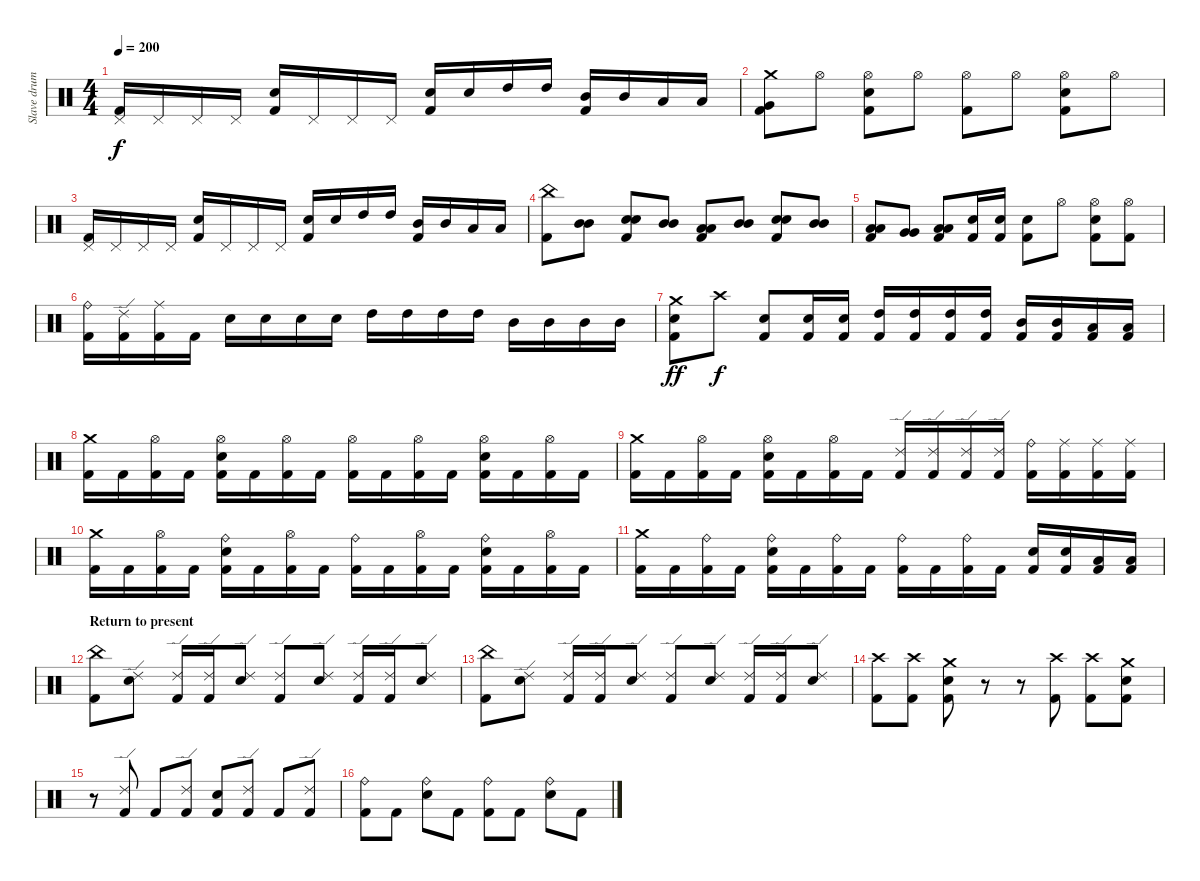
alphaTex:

\track ("Slave drum" "Slave drum") {instrument percussion}
\staff {score}
\articulation defaults
\ts (4 4)
\tempo 200
\clef neutral
\ks c
("Pedal Hi-Hat (hit)" "Kick (hit) 2").16{dy f} "Pedal Hi-Hat (hit)".16 "Pedal Hi-Hat (hit)".16 "Pedal Hi-Hat (hit)".16 ("Electric Snare (hit)" "Kick (hit) 2").16 "Pedal Hi-Hat (hit)".16 "Pedal Hi-Hat (hit)".16 "Pedal Hi-Hat (hit)".16 ("Electric Snare (hit)" "Kick (hit) 2").16 "Electric Snare (hit)".16 "High Tom (hit)".16 "High Tom (hit)".16 ("Mid Tom (hit)" "Kick (hit) 2").16 "Mid Tom (hit)".16 "Low Tom (hit)".16 "Low Tom (hit)".16 |
("Crash medium (hit)" "Very Low Tom (hit)" "Kick (hit) 2").8 "Hi-Hat (open)".8 ("Hi-Hat (open)" "Electric Snare (hit)" "Kick (hit) 2").8 "Hi-Hat (open)".8 ("Hi-Hat (open)" "Kick (hit) 2").8 "Hi-Hat (open)".8 ("Hi-Hat (open)" "Electric Snare (hit)" "Kick (hit) 2").8 "Hi-Hat (open)".8 |
("Pedal Hi-Hat (hit)" "Kick (hit) 2").16 "Pedal Hi-Hat (hit)".16 "Pedal Hi-Hat (hit)".16 "Pedal Hi-Hat (hit)".16 ("Electric Snare (hit)" "Kick (hit) 2").16 "Pedal Hi-Hat (hit)".16 "Pedal Hi-Hat (hit)".16 "Pedal Hi-Hat (hit)".16 ("Electric Snare (hit)" "Kick (hit) 2").16 "Electric Snare (hit)".16 "High Tom (hit)".16 "High Tom (hit)".16 ("Mid Tom (hit)" "Kick (hit) 2").16 "Mid Tom (hit)".16 "Low Tom (hit)".16 "Low Tom (hit)".16 |
("China (hit)" "Kick (hit) 2").8 ("Mid Tom (hit)" "Mid Tom (hit)").8 ("Electric Snare (hit)" "Electric Snare (hit)" "Kick (hit) 2").8 ("Mid Tom (hit)" "Mid Tom (hit)").8 ("Low Tom (hit)" "Low Tom (hit)" "Kick (hit) 2").8 ("Mid Tom (hit)" "Mid Tom (hit)").8 ("Electric Snare (hit)" "Electric Snare (hit)" "Kick (hit) 2").8 ("Mid Tom (hit)" "Mid Tom (hit)").8 |
("Low Tom (hit)" "Low Tom (hit)" "Kick (hit) 2").8 ("Very Low Tom (hit)" "Very Low Tom (hit)").8 ("Low Floor Tom (hit)" "Low Floor Tom (hit)" "Kick (hit) 2").8 ("Electric Snare (hit)" "Kick (hit) 2").16 ("Electric Snare (hit)" "Kick (hit) 2").16 ("Electric Snare (hit)" "Kick (hit) 2").8 "Hi-Hat (open)".8 ("Hi-Hat (open)" "Electric Snare (hit)" "Kick (hit) 2").8 ("Hi-Hat (open)" "Kick (hit) 2").8 |
("Ride (bell)" "Kick (hit) 2").16 ("Ride (edge) 2" "Kick (hit) 2").16 ("Ride (middle)" "Kick (hit) 2").16 "Kick (hit) 2".16 "Electric Snare (hit)".16 "Electric Snare (hit)".16 "Electric Snare (hit)".16 "Electric Snare (hit)".16 "High Tom (hit)".16 "High Tom (hit)".16 "High Tom (hit)".16 "High Tom (hit)".16 "Mid Tom (hit)".16 "Mid Tom (hit)".16 "Mid Tom (hit)".16 "Mid Tom (hit)".16 |
("Crash medium (hit)" "Electric Snare (hit)" "Kick (hit) 2").8{dy ff} "Crash high (hit)".8{dy f} ("Electric Snare (hit)" "Kick (hit) 2").8 ("Electric Snare (hit)" "Kick (hit) 2").16 ("Electric Snare (hit)" "Kick (hit) 2").16 ("High Tom (hit)" "Kick (hit) 2").16 ("High Tom (hit)" "Kick (hit) 2").16 ("High Tom (hit)" "Kick (hit) 2").16 ("High Tom (hit)" "Kick (hit) 2").16 ("Mid Tom (hit)" "Kick (hit) 2").16 ("Mid Tom (hit)" "Kick (hit) 2").16 ("Low Tom (hit)" "Kick (hit) 2").16 ("Low Tom (hit)" "Kick (hit) 2").16 |
("Crash medium (hit)" "Kick (hit) 2").16 "Kick (hit) 2".16 ("Hi-Hat (open)" "Kick (hit) 2").16 "Kick (hit) 2".16 ("Hi-Hat (open)" "Electric Snare (hit)" "Kick (hit) 2").16 "Kick (hit) 2".16 ("Hi-Hat (open)" "Kick (hit) 2").16 "Kick (hit) 2".16 ("Hi-Hat (open)" "Kick (hit) 2").16 "Kick (hit) 2".16 ("Hi-Hat (open)" "Kick (hit) 2").16 "Kick (hit) 2".16 ("Hi-Hat (open)" "Electric Snare (hit)" "Kick (hit) 2").16 "Kick (hit) 2".16 ("Hi-Hat (open)" "Kick (hit) 2").16 "Kick (hit) 2".16 |
("Crash medium (hit)" "Kick (hit) 2").16 "Kick (hit) 2".16 ("Hi-Hat (open)" "Kick (hit) 2").16 "Kick (hit) 2".16 ("Hi-Hat (open)" "Electric Snare (hit)" "Kick (hit) 2").16 "Kick (hit) 2".16 ("Hi-Hat (open)" "Kick (hit) 2").16 "Kick (hit) 2".16 ("Ride (edge) 2" "Kick (hit) 2").16 ("Ride (edge) 2" "Kick (hit) 2").16 ("Ride (edge) 2" "Kick (hit) 2").16 ("Ride (edge) 2" "Kick (hit) 2").16 ("Ride (bell)" "Kick (hit) 2").16 ("Ride (middle)" "Kick (hit) 2").16 ("Ride (middle)" "Kick (hit) 2").16 ("Ride (middle)" "Kick (hit) 2").16 |
("Crash medium (hit)" "Kick (hit) 2").16 "Kick (hit) 2".16 ("Hi-Hat (open)" "Kick (hit) 2").16 "Kick (hit) 2".16 ("Ride (bell)" "Electric Snare (hit)" "Kick (hit) 2").16 "Kick (hit) 2".16 ("Hi-Hat (open)" "Kick (hit) 2").16 "Kick (hit) 2".16 ("Ride (bell)" "Kick (hit) 2").16 "Kick (hit) 2".16 ("Hi-Hat (open)" "Kick (hit) 2").16 "Kick (hit) 2".16 ("Ride (bell)" "Electric Snare (hit)" "Kick (hit) 2").16 "Kick (hit) 2".16 ("Hi-Hat (open)" "Kick (hit) 2").16 "Kick (hit) 2".16 |
("Crash medium (hit)" "Kick (hit) 2").16 "Kick (hit) 2".16 ("Ride (bell)" "Kick (hit) 2").16 "Kick (hit) 2".16 ("Ride (bell)" "Electric Snare (hit)" "Kick (hit) 2").16 "Kick (hit) 2".16 ("Ride (bell)" "Kick (hit) 2").16 "Kick (hit) 2".16 ("Ride (bell)" "Kick (hit) 2").16 "Kick (hit) 2".16 ("Ride (bell)" "Kick (hit) 2").16 "Kick (hit) 2".16 ("Electric Snare (hit)" "Kick (hit) 2").16 ("Electric Snare (hit)" "Kick (hit) 2").16 ("Low Tom (hit)" "Kick (hit) 2").16 ("Low Tom (hit)" "Kick (hit) 2").16 |
\section ("" "Return to present")
("China (hit)" "Kick (hit) 2").8 ("Ride (edge) 2" "Electric Snare (hit)").8 ("Ride (edge) 2" "Kick (hit) 2").16 ("Ride (edge) 2" "Kick (hit) 2").16 ("Ride (edge) 2" "Electric Snare (hit)").8 ("Ride (edge) 2" "Kick (hit) 2").8 ("Ride (edge) 2" "Electric Snare (hit)").8 ("Ride (edge) 2" "Kick (hit) 2").16 ("Ride (edge) 2" "Kick (hit) 2").16 ("Ride (edge) 2" "Electric Snare (hit)").8 |
("China (hit)" "Kick (hit) 2").8 ("Ride (edge) 2" "Electric Snare (hit)").8 ("Ride (edge) 2" "Kick (hit) 2").16 ("Ride (edge) 2" "Kick (hit) 2").16 ("Ride (edge) 2" "Electric Snare (hit)").8 ("Ride (edge) 2" "Kick (hit) 2").8 ("Ride (edge) 2" "Electric Snare (hit)").8 ("Ride (edge) 2" "Kick (hit) 2").16 ("Ride (edge) 2" "Kick (hit) 2").16 ("Ride (edge) 2" "Electric Snare (hit)").8 |
("Crash high (hit)" "Kick (hit) 2").8 ("Crash high (hit)" "Kick (hit) 2").8 ("Crash medium (hit)" "Electric Snare (hit)" "Kick (hit) 2").8 r.8 r.8 ("Crash high (hit)" "Kick (hit) 2").8 ("Crash high (hit)" "Kick (hit) 2").8 ("Crash medium (hit)" "Electric Snare (hit)" "Kick (hit) 2").8 |
r.8 ("Ride (edge) 2" "Kick (hit) 2").8 "Kick (hit) 2".8 ("Ride (edge) 2" "Kick (hit) 2").8 ("Electric Snare (hit)" "Kick (hit) 2").8 ("Ride (edge) 2" "Kick (hit) 2").8 "Kick (hit) 2".8 ("Ride (edge) 2" "Kick (hit) 2").8 |
("Ride (bell)" "Kick (hit) 2").8 "Kick (hit) 2".8 ("Ride (bell)" "Electric Snare (hit)").8 "Kick (hit) 2".8 ("Ride (bell)" "Kick (hit) 2").8 "Kick (hit) 2".8 ("Ride (bell)" "Electric Snare (hit)").8 "Kick (hit) 2".8
